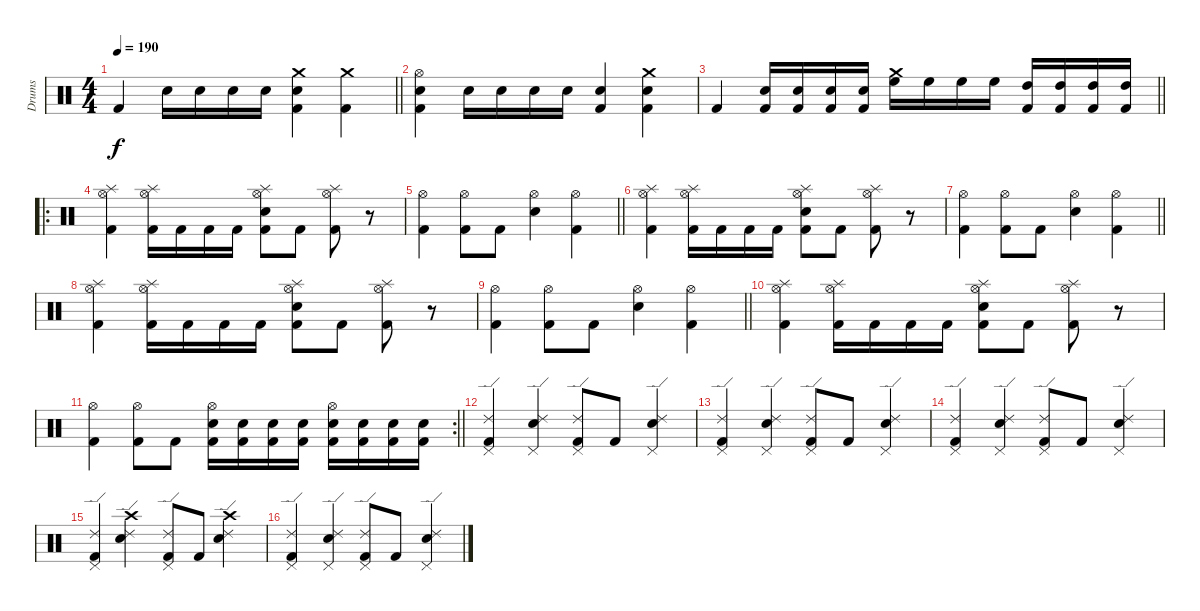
\track ("Drums" "Drums") {instrument percussion}
\staff {score}
\articulation defaults
\ts (4 4)
\tempo 190
\clef neutral
\barLineRight lightlight
\ks c "Kick (hit) 2".4{dy f} "Snare (hit) 2".16 "Snare (hit) 2".16 "Snare (hit) 2".16 "Snare (hit) 2".16
("Kick (hit) 2" "Snare (hit) 2" "Crash medium (hit)").4 ("Kick (hit) 2" "Crash medium (hit)").4 |
("Kick (hit) 2" "Snare (hit) 2" "Hi-Hat (open)").4 "Snare (hit) 2".16 "Snare (hit) 2".16 "Snare (hit) 2".16 "Snare (hit) 2".16 ("Kick (hit) 2" "Snare (hit) 2").4 ("Kick (hit) 2" "Snare (hit) 2" "Crash medium (hit)").4 |
\barLineRight lightlight "Kick (hit) 2".4
("Kick (hit) 2" "Snare (hit) 2").16 ("Kick (hit) 2" "Snare (hit) 2").16 ("Kick (hit) 2" "Snare (hit) 2").16 ("Kick (hit) 2" "Snare (hit) 2").16 ("High Floor Tom (hit)" "Crash medium (hit)").16 "High Floor Tom (hit)".16 "High Floor Tom (hit)".16 "High Floor Tom (hit)".16 ("Kick (hit) 2" "High Tom (hit)").16 ("Kick (hit) 2" "High Tom (hit)").16 ("Kick (hit) 2" "High Tom (hit)").16 ("Kick (hit) 2" "High Tom (hit)").16 |
\ro
\section ("" "")
("Kick (hit) 2" "Splash (hit)" "Hi-Hat (open)").4 ("Kick (hit) 2" "Splash (hit)" "Hi-Hat (open)").16 "Kick (hit) 2".16 "Kick (hit) 2".16 "Kick (hit) 2".16 ("Kick (hit) 2" "Snare (hit) 2" "Splash (hit)" "Hi-Hat (open)").8 "Kick (hit) 2".8 ("Kick (hit) 2" "Splash (hit)" "Hi-Hat (open)").8 r.8 |
\barLineRight lightlight
("Kick (hit) 2" "Hi-Hat (open)").4 ("Kick (hit) 2" "Hi-Hat (open)").8 "Kick (hit) 2".8 ("Snare (hit) 2" "Hi-Hat (open)").4 ("Kick (hit) 2" "Hi-Hat (open)").4 |
("Kick (hit) 2" "Splash (hit)" "Hi-Hat (open)").4 ("Kick (hit) 2" "Splash (hit)" "Hi-Hat (open)").16 "Kick (hit) 2".16 "Kick (hit) 2".16 "Kick (hit) 2".16 ("Kick (hit) 2" "Snare (hit) 2" "Splash (hit)" "Hi-Hat (open)").8 "Kick (hit) 2".8 ("Kick (hit) 2" "Splash (hit)" "Hi-Hat (open)").8 r.8 |
\barLineRight lightlight
("Kick (hit) 2" "Hi-Hat (open)").4 ("Kick (hit) 2" "Hi-Hat (open)").8 "Kick (hit) 2".8 ("Snare (hit) 2" "Hi-Hat (open)").4 ("Kick (hit) 2" "Hi-Hat (open)").4 |
("Kick (hit) 2" "Splash (hit)" "Hi-Hat (open)").4 ("Kick (hit) 2" "Splash (hit)" "Hi-Hat (open)").16 "Kick (hit) 2".16 "Kick (hit) 2".16 "Kick (hit) 2".16 ("Kick (hit) 2" "Snare (hit) 2" "Splash (hit)" "Hi-Hat (open)").8 "Kick (hit) 2".8 ("Kick (hit) 2" "Splash (hit)" "Hi-Hat (open)").8 r.8 |
\barLineRight lightlight
("Kick (hit) 2" "Hi-Hat (open)").4 ("Kick (hit) 2" "Hi-Hat (open)").8 "Kick (hit) 2".8 ("Snare (hit) 2" "Hi-Hat (open)").4 ("Kick (hit) 2" "Hi-Hat (open)").4 |
("Kick (hit) 2" "Splash (hit)" "Hi-Hat (open)").4 ("Kick (hit) 2" "Splash (hit)" "Hi-Hat (open)").16 "Kick (hit) 2".16 "Kick (hit) 2".16 "Kick (hit) 2".16 ("Kick (hit) 2" "Snare (hit) 2" "Splash (hit)" "Hi-Hat (open)").8 "Kick (hit) 2".8 ("Kick (hit) 2" "Splash (hit)" "Hi-Hat (open)").8 r.8 |
\rc 2
\barLineRight lightlight
("Kick (hit) 2" "Hi-Hat (open)").4 ("Kick (hit) 2" "Hi-Hat (open)").8 "Kick (hit) 2".8 ("Kick (hit) 2" "Snare (hit) 2" "Hi-Hat (open)").16 ("Kick (hit) 2" "Snare (hit) 2").16 ("Kick (hit) 2" "Snare (hit) 2").16 ("Kick (hit) 2" "Snare (hit) 2").16 ("Kick (hit) 2" "Snare (hit) 2" "Hi-Hat (open)").16 ("Kick (hit) 2" "Snare (hit) 2").16 ("Kick (hit) 2" "Snare (hit) 2").16 ("Kick (hit) 2" "Snare (hit) 2").16 |
\section ("" "")
("Kick (hit) 2" "Ride (edge) 2" "Pedal Hi-Hat (hit)").4 ("Snare (hit) 2" "Ride (edge) 2" "Pedal Hi-Hat (hit)").4 ("Kick (hit) 2" "Ride (edge) 2" "Pedal Hi-Hat (hit)").8 "Kick (hit) 2".8 ("Snare (hit) 2" "Ride (edge) 2" "Pedal Hi-Hat (hit)").4 |
("Kick (hit) 2" "Ride (edge) 2" "Pedal Hi-Hat (hit)").4 ("Snare (hit) 2" "Ride (edge) 2" "Pedal Hi-Hat (hit)").4 ("Kick (hit) 2" "Ride (edge) 2" "Pedal Hi-Hat (hit)").8 "Kick (hit) 2".8 ("Snare (hit) 2" "Ride (edge) 2" "Pedal Hi-Hat (hit)").4 |
("Kick (hit) 2" "Ride (edge) 2" "Pedal Hi-Hat (hit)").4 ("Snare (hit) 2" "Ride (edge) 2" "Pedal Hi-Hat (hit)").4 ("Kick (hit) 2" "Ride (edge) 2" "Pedal Hi-Hat (hit)").8 "Kick (hit) 2".8 ("Snare (hit) 2" "Ride (edge) 2" "Pedal Hi-Hat (hit)").4 |
("Kick (hit) 2" "Ride (edge) 2" "Pedal Hi-Hat (hit)").4 ("Snare (hit) 2" "Ride (edge) 2" "Crash high (hit)").4 ("Kick (hit) 2" "Ride (edge) 2" "Pedal Hi-Hat (hit)").8 "Kick (hit) 2".8 ("Snare (hit) 2" "Ride (edge) 2" "Crash high (hit)").4 |
("Kick (hit) 2" "Ride (edge) 2" "Pedal Hi-Hat (hit)").4 ("Snare (hit) 2" "Ride (edge) 2" "Pedal Hi-Hat (hit)").4 ("Kick (hit) 2" "Ride (edge) 2" "Pedal Hi-Hat (hit)").8 "Kick (hit) 2".8 ("Snare (hit) 2" "Ride (edge) 2" "Pedal Hi-Hat (hit)").4
